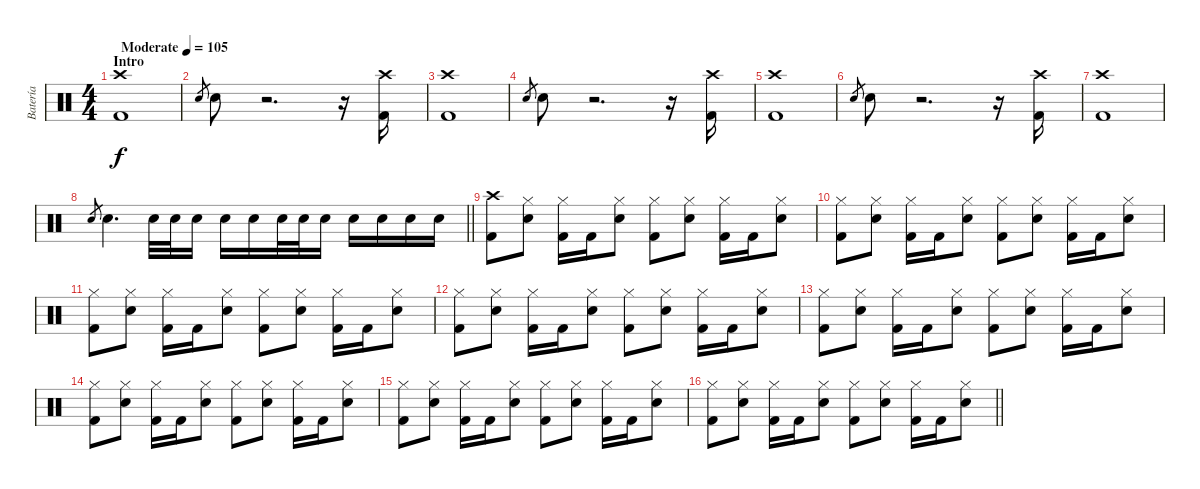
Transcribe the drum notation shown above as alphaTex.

\track ("Batería" "Batería") {instrument percussion}
\staff {score}
\articulation defaults
\ts (4 4)
\section ("" "Intro")
\tempo (105 "Moderate")
\clef neutral
\ks c
("Crash high (hit)" "Kick (hit) 2").1{dy f} |
"Snare (hit) 2".8{gr} "Snare (hit) 2".8 r.2{d} r.16 ("Kick (hit) 2" "Crash high (hit)").16 |
("Crash high (hit)" "Kick (hit) 2").1 |
"Snare (hit) 2".8{gr} "Snare (hit) 2".8 r.2{d} r.16 ("Kick (hit) 2" "Crash high (hit)").16 |
("Crash high (hit)" "Kick (hit) 2").1 |
"Snare (hit) 2".8{gr} "Snare (hit) 2".8 r.2{d} r.16 ("Kick (hit) 2" "Crash high (hit)").16 |
("Crash high (hit)" "Kick (hit) 2").1 |
\barLineRight lightlight "Snare (hit) 2".8{gr} "Snare (hit) 2".4{d} "Snare (hit) 2".32 "Snare (hit) 2".32 "Snare (hit) 2".16 "Snare (hit) 2".16 "Snare (hit) 2".16 "Snare (hit) 2".32 "Snare (hit) 2".32 "Snare (hit) 2".16 "Snare (hit) 2".16 "Snare (hit) 2".16 "Snare (hit) 2".16 "Snare (hit) 2".16
|
("Kick (hit) 2" "Crash high (hit)").8 ("Snare (hit) 2" "Hi-Hat (closed)").8 ("Kick (hit) 2" "Hi-Hat (closed)").16 "Kick (hit) 2".16 ("Snare (hit) 2" "Hi-Hat (closed)").8 ("Kick (hit) 2" "Hi-Hat (closed)").8 ("Snare (hit) 2" "Hi-Hat (closed)").8 ("Kick (hit) 2" "Hi-Hat (closed)").16 "Kick (hit) 2".16 ("Snare (hit) 2" "Hi-Hat (closed)").8 |
("Kick (hit) 2" "Hi-Hat (closed)").8 ("Snare (hit) 2" "Hi-Hat (closed)").8 ("Kick (hit) 2" "Hi-Hat (closed)").16 "Kick (hit) 2".16 ("Snare (hit) 2" "Hi-Hat (closed)").8 ("Kick (hit) 2" "Hi-Hat (closed)").8 ("Snare (hit) 2" "Hi-Hat (closed)").8 ("Kick (hit) 2" "Hi-Hat (closed)").16 "Kick (hit) 2".16 ("Snare (hit) 2" "Hi-Hat (closed)").8 |
("Kick (hit) 2" "Hi-Hat (closed)").8 ("Snare (hit) 2" "Hi-Hat (closed)").8 ("Kick (hit) 2" "Hi-Hat (closed)").16 "Kick (hit) 2".16 ("Snare (hit) 2" "Hi-Hat (closed)").8 ("Kick (hit) 2" "Hi-Hat (closed)").8 ("Snare (hit) 2" "Hi-Hat (closed)").8 ("Kick (hit) 2" "Hi-Hat (closed)").16 "Kick (hit) 2".16 ("Snare (hit) 2" "Hi-Hat (closed)").8 |
("Kick (hit) 2" "Hi-Hat (closed)").8 ("Snare (hit) 2" "Hi-Hat (closed)").8 ("Kick (hit) 2" "Hi-Hat (closed)").16 "Kick (hit) 2".16 ("Snare (hit) 2" "Hi-Hat (closed)").8 ("Kick (hit) 2" "Hi-Hat (closed)").8 ("Snare (hit) 2" "Hi-Hat (closed)").8 ("Kick (hit) 2" "Hi-Hat (closed)").16 "Kick (hit) 2".16 ("Snare (hit) 2" "Hi-Hat (closed)").8 |
("Kick (hit) 2" "Hi-Hat (closed)").8 ("Snare (hit) 2" "Hi-Hat (closed)").8 ("Kick (hit) 2" "Hi-Hat (closed)").16 "Kick (hit) 2".16 ("Snare (hit) 2" "Hi-Hat (closed)").8 ("Kick (hit) 2" "Hi-Hat (closed)").8 ("Snare (hit) 2" "Hi-Hat (closed)").8 ("Kick (hit) 2" "Hi-Hat (closed)").16 "Kick (hit) 2".16 ("Snare (hit) 2" "Hi-Hat (closed)").8 |
("Kick (hit) 2" "Hi-Hat (closed)").8 ("Snare (hit) 2" "Hi-Hat (closed)").8 ("Kick (hit) 2" "Hi-Hat (closed)").16 "Kick (hit) 2".16 ("Snare (hit) 2" "Hi-Hat (closed)").8 ("Kick (hit) 2" "Hi-Hat (closed)").8 ("Snare (hit) 2" "Hi-Hat (closed)").8 ("Kick (hit) 2" "Hi-Hat (closed)").16 "Kick (hit) 2".16 ("Snare (hit) 2" "Hi-Hat (closed)").8 |
("Kick (hit) 2" "Hi-Hat (closed)").8 ("Snare (hit) 2" "Hi-Hat (closed)").8 ("Kick (hit) 2" "Hi-Hat (closed)").16 "Kick (hit) 2".16 ("Snare (hit) 2" "Hi-Hat (closed)").8 ("Kick (hit) 2" "Hi-Hat (closed)").8 ("Snare (hit) 2" "Hi-Hat (closed)").8 ("Kick (hit) 2" "Hi-Hat (closed)").16 "Kick (hit) 2".16 ("Snare (hit) 2" "Hi-Hat (closed)").8 |
\barLineRight lightlight
("Kick (hit) 2" "Hi-Hat (closed)").8 ("Snare (hit) 2" "Hi-Hat (closed)").8 ("Kick (hit) 2" "Hi-Hat (closed)").16 "Kick (hit) 2".16 ("Snare (hit) 2" "Hi-Hat (closed)").8 ("Kick (hit) 2" "Hi-Hat (closed)").8 ("Snare (hit) 2" "Hi-Hat (closed)").8 ("Kick (hit) 2" "Hi-Hat (closed)").16 "Kick (hit) 2".16 ("Snare (hit) 2" "Hi-Hat (closed)").8
